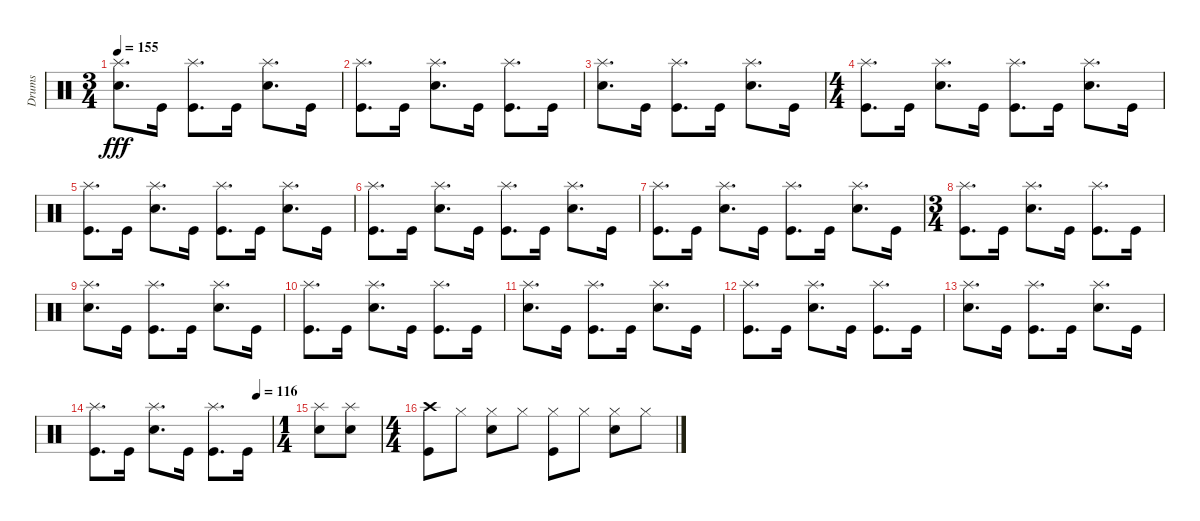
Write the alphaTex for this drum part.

\track ("Drums" "Drums") {instrument percussion}
\staff {score}
\articulation defaults
\ts (3 4)
\tempo 155
\clef neutral
\ks c
("Splash (hit)" "Electric Snare (hit)").8{d dy fff} "Kick (hit)".16 ("Splash (hit)" "Kick (hit)").8{d} "Kick (hit)".16 ("Splash (hit)" "Electric Snare (hit)").8{d} "Kick (hit)".16 |
("Splash (hit)" "Kick (hit)").8{d} "Kick (hit)".16 ("Splash (hit)" "Electric Snare (hit)").8{d} "Kick (hit)".16 ("Splash (hit)" "Kick (hit)").8{d} "Kick (hit)".16 |
("Splash (hit)" "Electric Snare (hit)").8{d} "Kick (hit)".16 ("Splash (hit)" "Kick (hit)").8{d} "Kick (hit)".16 ("Splash (hit)" "Electric Snare (hit)").8{d} "Kick (hit)".16 |
\ts (4 4)
("Splash (hit)" "Kick (hit)").8{d} "Kick (hit)".16 ("Splash (hit)" "Electric Snare (hit)").8{d} "Kick (hit)".16 ("Splash (hit)" "Kick (hit)").8{d} "Kick (hit)".16 ("Splash (hit)" "Electric Snare (hit)").8{d} "Kick (hit)".16 |
("Splash (hit)" "Kick (hit)").8{d} "Kick (hit)".16 ("Splash (hit)" "Electric Snare (hit)").8{d} "Kick (hit)".16 ("Splash (hit)" "Kick (hit)").8{d} "Kick (hit)".16 ("Splash (hit)" "Electric Snare (hit)").8{d} "Kick (hit)".16 |
("Splash (hit)" "Kick (hit)").8{d} "Kick (hit)".16 ("Splash (hit)" "Electric Snare (hit)").8{d} "Kick (hit)".16 ("Splash (hit)" "Kick (hit)").8{d} "Kick (hit)".16 ("Splash (hit)" "Electric Snare (hit)").8{d} "Kick (hit)".16 |
("Splash (hit)" "Kick (hit)").8{d} "Kick (hit)".16 ("Splash (hit)" "Electric Snare (hit)").8{d} "Kick (hit)".16 ("Splash (hit)" "Kick (hit)").8{d} "Kick (hit)".16 ("Splash (hit)" "Electric Snare (hit)").8{d} "Kick (hit)".16 |
\ts (3 4)
("Splash (hit)" "Kick (hit)").8{d} "Kick (hit)".16 ("Splash (hit)" "Electric Snare (hit)").8{d} "Kick (hit)".16 ("Splash (hit)" "Kick (hit)").8{d} "Kick (hit)".16 |
("Splash (hit)" "Electric Snare (hit)").8{d} "Kick (hit)".16 ("Splash (hit)" "Kick (hit)").8{d} "Kick (hit)".16 ("Splash (hit)" "Electric Snare (hit)").8{d} "Kick (hit)".16 |
("Splash (hit)" "Kick (hit)").8{d} "Kick (hit)".16 ("Splash (hit)" "Electric Snare (hit)").8{d} "Kick (hit)".16 ("Splash (hit)" "Kick (hit)").8{d} "Kick (hit)".16 |
("Splash (hit)" "Electric Snare (hit)").8{d} "Kick (hit)".16 ("Splash (hit)" "Kick (hit)").8{d} "Kick (hit)".16 ("Splash (hit)" "Electric Snare (hit)").8{d} "Kick (hit)".16 |
("Splash (hit)" "Kick (hit)").8{d} "Kick (hit)".16 ("Splash (hit)" "Electric Snare (hit)").8{d} "Kick (hit)".16 ("Splash (hit)" "Kick (hit)").8{d} "Kick (hit)".16 |
("Splash (hit)" "Electric Snare (hit)").8{d} "Kick (hit)".16 ("Splash (hit)" "Kick (hit)").8{d} "Kick (hit)".16 ("Splash (hit)" "Electric Snare (hit)").8{d} "Kick (hit)".16 |
\tempo (116 0.9166666666666666)
("Splash (hit)" "Kick (hit)").8{d} "Kick (hit)".16 ("Splash (hit)" "Electric Snare (hit)").8{d} "Kick (hit)".16 ("Splash (hit)" "Kick (hit)").8{d} "Kick (hit)".16 |
\ts (1 4)
("Splash (hit)" "Electric Snare (hit)").8 ("Splash (hit)" "Electric Snare (hit)").8 |
\ts (4 4)
("Crash high (hit)" "Kick (hit)").8 "Hi-Hat (closed)".8 ("Hi-Hat (closed)" "Electric Snare (hit)").8 "Hi-Hat (closed)".8 ("Hi-Hat (closed)" "Kick (hit)").8 "Hi-Hat (closed)".8 ("Hi-Hat (closed)" "Electric Snare (hit)").8 "Hi-Hat (closed)".8
